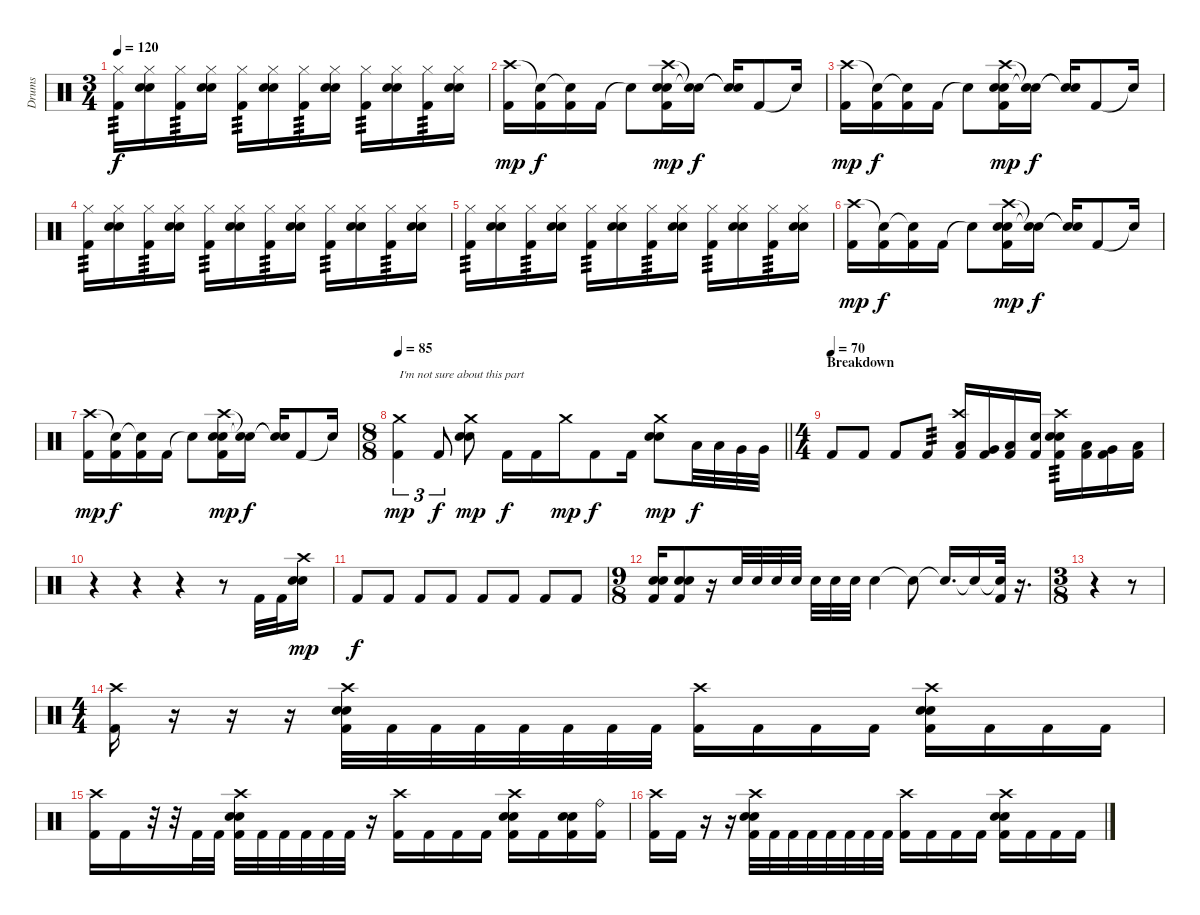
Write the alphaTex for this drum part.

\track ("Drums" "Drums") {instrument percussion}
\staff {score}
\articulation defaults
\ts (3 4)
\tempo 120
\clef neutral
\ks c
("Hi-Hat (closed)" "Kick (hit) 2").16{tp 3 dy f} ("Hi-Hat (closed)" "Snare (hit) 2" "Electric Snare (hit)").16 ("Hi-Hat (closed)" "Kick (hit) 2").16{tp 3} ("Hi-Hat (closed)" "Snare (hit) 2" "Electric Snare (hit)").16 ("Hi-Hat (closed)" "Kick (hit) 2").16{tp 3} ("Hi-Hat (closed)" "Snare (hit) 2" "Electric Snare (hit)").16 ("Hi-Hat (closed)" "Kick (hit) 2").16{tp 3} ("Hi-Hat (closed)" "Snare (hit) 2" "Electric Snare (hit)").16 ("Hi-Hat (closed)" "Kick (hit) 2").16{tp 3} ("Hi-Hat (closed)" "Snare (hit) 2" "Electric Snare (hit)").16 ("Hi-Hat (closed)" "Kick (hit) 2").16{tp 3} ("Hi-Hat (closed)" "Snare (hit) 2" "Electric Snare (hit)").16 |
("Crash high (hit)" "Kick (hit) 2").16{dy mp} ("Snare (hit)"{t} "Kick (hit) 2").16{dy f} ("Snare (hit)"{t} "Kick (hit) 2").16 "Kick (hit) 2".16 "Snare (hit)"{t}.8 ("Crash high (hit)" "Snare (hit) 2" "Electric Snare (hit)" "Kick (hit) 2").16{dy mp} ("Snare (hit)"{t} "Snare (hit)"{t}).16{dy f} ("Snare (hit)"{t} "Snare (hit)"{t}).16 "Kick (hit) 2".8 "Snare (hit)"{t}.16 |
("Crash high (hit)" "Kick (hit) 2").16{dy mp} ("Snare (hit)"{t} "Kick (hit) 2").16{dy f} ("Snare (hit)"{t} "Kick (hit) 2").16 "Kick (hit) 2".16 "Snare (hit)"{t}.8 ("Crash high (hit)" "Snare (hit) 2" "Electric Snare (hit)" "Kick (hit) 2").16{dy mp} ("Snare (hit)"{t} "Snare (hit)"{t}).16{dy f} ("Snare (hit)"{t} "Snare (hit)"{t}).16 "Kick (hit) 2".8 "Snare (hit)"{t}.16 |
("Hi-Hat (closed)" "Kick (hit) 2").16{tp 3} ("Hi-Hat (closed)" "Snare (hit) 2" "Electric Snare (hit)").16 ("Hi-Hat (closed)" "Kick (hit) 2").16{tp 3} ("Hi-Hat (closed)" "Snare (hit) 2" "Electric Snare (hit)").16 ("Hi-Hat (closed)" "Kick (hit) 2").16{tp 3} ("Hi-Hat (closed)" "Snare (hit) 2" "Electric Snare (hit)").16 ("Hi-Hat (closed)" "Kick (hit) 2").16{tp 3} ("Hi-Hat (closed)" "Snare (hit) 2" "Electric Snare (hit)").16 ("Hi-Hat (closed)" "Kick (hit) 2").16{tp 3} ("Hi-Hat (closed)" "Snare (hit) 2" "Electric Snare (hit)").16 ("Hi-Hat (closed)" "Kick (hit) 2").16{tp 3} ("Hi-Hat (closed)" "Snare (hit) 2" "Electric Snare (hit)").16 |
("Hi-Hat (closed)" "Kick (hit) 2").16{tp 3} ("Hi-Hat (closed)" "Snare (hit) 2" "Electric Snare (hit)").16 ("Hi-Hat (closed)" "Kick (hit) 2").16{tp 3} ("Hi-Hat (closed)" "Snare (hit) 2" "Electric Snare (hit)").16 ("Hi-Hat (closed)" "Kick (hit) 2").16{tp 3} ("Hi-Hat (closed)" "Snare (hit) 2" "Electric Snare (hit)").16 ("Hi-Hat (closed)" "Kick (hit) 2").16{tp 3} ("Hi-Hat (closed)" "Snare (hit) 2" "Electric Snare (hit)").16 ("Hi-Hat (closed)" "Kick (hit) 2").16{tp 3} ("Hi-Hat (closed)" "Snare (hit) 2" "Electric Snare (hit)").16 ("Hi-Hat (closed)" "Kick (hit) 2").16{tp 3} ("Hi-Hat (closed)" "Snare (hit) 2" "Electric Snare (hit)").16 |
("Crash high (hit)" "Kick (hit) 2").16{dy mp} ("Snare (hit)"{t} "Kick (hit) 2").16{dy f} ("Snare (hit)"{t} "Kick (hit) 2").16 "Kick (hit) 2".16 "Snare (hit)"{t}.8 ("Crash high (hit)" "Snare (hit) 2" "Electric Snare (hit)" "Kick (hit) 2").16{dy mp} ("Snare (hit)"{t} "Snare (hit)"{t}).16{dy f} ("Snare (hit)"{t} "Snare (hit)"{t}).16 "Kick (hit) 2".8 "Snare (hit)"{t}.16 |
("Crash high (hit)" "Kick (hit) 2").16{dy mp} ("Snare (hit)"{t} "Kick (hit) 2").16{dy f} ("Snare (hit)"{t} "Kick (hit) 2").16 "Kick (hit) 2".16 "Snare (hit)"{t}.8 ("Crash high (hit)" "Snare (hit) 2" "Electric Snare (hit)" "Kick (hit) 2").16{dy mp} ("Snare (hit)"{t} "Snare (hit)"{t}).16{dy f} ("Snare (hit)"{t} "Snare (hit)"{t}).16 "Kick (hit) 2".8 "Snare (hit)"{t}.16 |
\ts (8 8)
\tempo 85
\barLineRight lightlight
("Crash medium (hit)" "Kick (hit) 2").4{tu (3 2) txt "I'm not sure about this part" dy mp} "Kick (hit) 2".8{tu (3 2) dy f} ("Crash medium (hit)" "Snare (hit) 2" "Electric Snare (hit)").8{dy mp} "Kick (hit) 2".16{dy f} "Kick (hit) 2".16 "Crash medium (hit)".16{dy mp} "Kick (hit) 2".8{dy f} "Kick (hit) 2".16 ("Crash medium (hit)" "Snare (hit) 2" "Electric Snare (hit)").8{dy mp} "Low Tom (hit)".32{dy f} "Low Tom (hit)".32 "Very Low Tom (hit)".32 "Very Low Tom (hit)".32 |
\ts (4 4)
\section ("" "Breakdown")
\tempo (70)
"Kick (hit) 2".8 "Kick (hit) 2".8 "Kick (hit) 2".8 "Kick (hit) 2".8{tp 3} ("Crash high (hit)" "Low Tom (hit)" "Kick (hit) 2").16 ("Very Low Tom (hit)" "Kick (hit) 2").16 ("Low Floor Tom (hit)" "Kick (hit) 2").16 ("Electric Snare (hit)" "Kick (hit) 2").16 ("Crash high (hit)" "Snare (hit) 2" "Electric Snare (hit)" "Kick (hit) 2").16{tp 3} ("Low Tom (hit)" "Kick (hit) 2").16 ("Very Low Tom (hit)" "Kick (hit) 2").16 ("Low Floor Tom (hit)" "Kick (hit) 2").16 |
r.4 r.4 r.4 r.8 "Kick (hit) 2".32 "Kick (hit) 2".32 ("Crash high (hit)" "Snare (hit) 2" "Electric Snare (hit)").16{dy mp} |
"Kick (hit) 2".8{dy f} "Kick (hit) 2".8 "Kick (hit) 2".8 "Kick (hit) 2".8 "Kick (hit) 2".8 "Kick (hit) 2".8 "Kick (hit) 2".8 "Kick (hit) 2".8 |
\ts (9 8)
("Snare (hit) 2" "Electric Snare (hit)" "Kick (hit) 2").16 ("Snare (hit) 2" "Electric Snare (hit)" "Kick (hit) 2").8 r.16 "Electric Snare (hit)".32 "Electric Snare (hit)".32 "Electric Snare (hit)".32 "Electric Snare (hit)".32 "Electric Snare (hit)".32 "Electric Snare (hit)".32 "Electric Snare (hit)".32 "Electric Snare (hit)".4 "Snare (hit)"{t}.8 "Snare (hit)"{t}.16{d} "Snare (hit)"{t}.16 ("Snare (hit)"{t} "Kick (hit) 2").32 r.16{d} |
\ts (3 8)
r.4 r.8 |
\ts (4 4)
("Crash high (hit)" "Kick (hit) 2").16 r.16 r.16 r.16 ("Crash high (hit)" "Snare (hit) 2" "Electric Snare (hit)" "Kick (hit) 2").32 "Kick (hit) 2".32 "Kick (hit) 2".32 "Kick (hit) 2".32 "Kick (hit) 2".32 "Kick (hit) 2".32 "Kick (hit) 2".32 "Kick (hit) 2".32 ("Crash high (hit)" "Kick (hit) 2").16 "Kick (hit) 2".16 "Kick (hit) 2".16 "Kick (hit) 2".16 ("Crash high (hit)" "Snare (hit) 2" "Electric Snare (hit)" "Kick (hit) 2").16 "Kick (hit) 2".16 "Kick (hit) 2".16 "Kick (hit) 2".16 |
("Crash high (hit)" "Kick (hit) 2").16 "Kick (hit) 2".16 r.32 r.32 "Kick (hit) 2".32 "Kick (hit) 2".32 ("Crash high (hit)" "Snare (hit) 2" "Electric Snare (hit)" "Kick (hit) 2").32 "Kick (hit) 2".32 "Kick (hit) 2".32 "Kick (hit) 2".32 "Kick (hit) 2".32 "Kick (hit) 2".32 r.16 ("Crash high (hit)" "Kick (hit) 2").16 "Kick (hit) 2".16 "Kick (hit) 2".16 "Kick (hit) 2".16 ("Crash high (hit)" "Electric Snare (hit)" "Snare (hit) 2" "Kick (hit) 2").16 "Kick (hit) 2".16 ("Electric Snare (hit)" "Snare (hit) 2" "Kick (hit) 2").16 ("Ride (bell)" "Kick (hit) 2").16 |
("Crash high (hit)" "Kick (hit) 2").16 "Kick (hit) 2".16 r.16 r.16 ("Crash high (hit)" "Snare (hit) 2" "Electric Snare (hit)" "Kick (hit) 2").32 "Kick (hit) 2".32 "Kick (hit) 2".32 "Kick (hit) 2".32 "Kick (hit) 2".32 "Kick (hit) 2".32 "Kick (hit) 2".32 "Kick (hit) 2".32 ("Crash high (hit)" "Kick (hit) 2").16 "Kick (hit) 2".16 "Kick (hit) 2".16 "Kick (hit) 2".16 ("Crash high (hit)" "Snare (hit) 2" "Electric Snare (hit)" "Kick (hit) 2").16 "Kick (hit) 2".16 "Kick (hit) 2".16 "Kick (hit) 2".16
